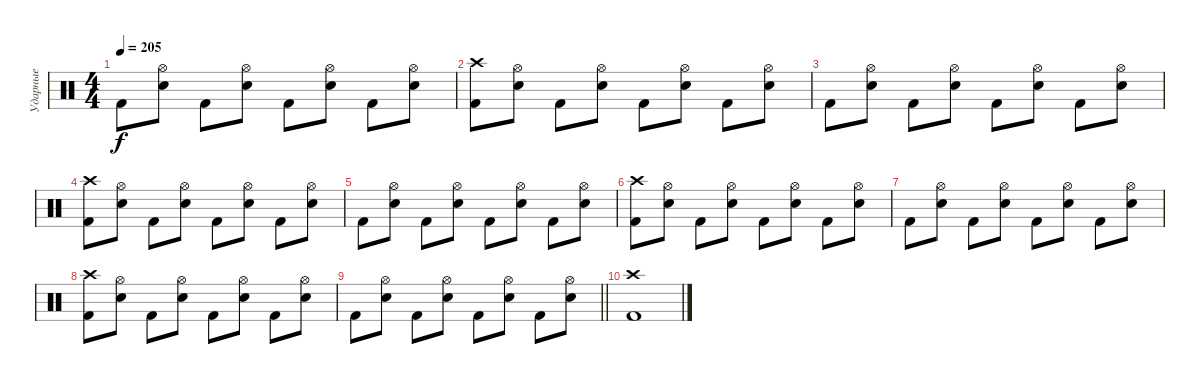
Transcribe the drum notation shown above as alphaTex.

\track ("Ударные" "Ударные") {instrument percussion}
\staff {score}
\articulation defaults
\ts (4 4)
\tempo 205
\clef neutral
\ks c "Kick (hit) 2".8{dy f}
("Hi-Hat (open)" "Electric Snare (hit)").8 "Kick (hit) 2".8 ("Hi-Hat (open)" "Electric Snare (hit)").8 "Kick (hit) 2".8 ("Hi-Hat (open)" "Electric Snare (hit)").8 "Kick (hit) 2".8 ("Hi-Hat (open)" "Electric Snare (hit)").8 |
("Crash high (hit)" "Kick (hit) 2").8 ("Hi-Hat (open)" "Electric Snare (hit)").8 "Kick (hit) 2".8 ("Hi-Hat (open)" "Electric Snare (hit)").8 "Kick (hit) 2".8 ("Hi-Hat (open)" "Electric Snare (hit)").8 "Kick (hit) 2".8 ("Hi-Hat (open)" "Electric Snare (hit)").8 |
"Kick (hit) 2".8 ("Hi-Hat (open)" "Electric Snare (hit)").8 "Kick (hit) 2".8 ("Hi-Hat (open)" "Electric Snare (hit)").8 "Kick (hit) 2".8 ("Hi-Hat (open)" "Electric Snare (hit)").8 "Kick (hit) 2".8 ("Hi-Hat (open)" "Electric Snare (hit)").8 |
("Crash high (hit)" "Kick (hit) 2").8 ("Hi-Hat (open)" "Electric Snare (hit)").8 "Kick (hit) 2".8 ("Hi-Hat (open)" "Electric Snare (hit)").8 "Kick (hit) 2".8 ("Hi-Hat (open)" "Electric Snare (hit)").8 "Kick (hit) 2".8 ("Hi-Hat (open)" "Electric Snare (hit)").8 |
"Kick (hit) 2".8 ("Hi-Hat (open)" "Electric Snare (hit)").8 "Kick (hit) 2".8 ("Hi-Hat (open)" "Electric Snare (hit)").8 "Kick (hit) 2".8 ("Hi-Hat (open)" "Electric Snare (hit)").8 "Kick (hit) 2".8 ("Hi-Hat (open)" "Electric Snare (hit)").8 |
("Crash high (hit)" "Kick (hit) 2").8 ("Hi-Hat (open)" "Electric Snare (hit)").8 "Kick (hit) 2".8 ("Hi-Hat (open)" "Electric Snare (hit)").8 "Kick (hit) 2".8 ("Hi-Hat (open)" "Electric Snare (hit)").8 "Kick (hit) 2".8 ("Hi-Hat (open)" "Electric Snare (hit)").8 |
"Kick (hit) 2".8 ("Hi-Hat (open)" "Electric Snare (hit)").8 "Kick (hit) 2".8 ("Hi-Hat (open)" "Electric Snare (hit)").8 "Kick (hit) 2".8 ("Hi-Hat (open)" "Electric Snare (hit)").8 "Kick (hit) 2".8 ("Hi-Hat (open)" "Electric Snare (hit)").8 |
("Crash high (hit)" "Kick (hit) 2").8 ("Hi-Hat (open)" "Electric Snare (hit)").8 "Kick (hit) 2".8 ("Hi-Hat (open)" "Electric Snare (hit)").8 "Kick (hit) 2".8 ("Hi-Hat (open)" "Electric Snare (hit)").8 "Kick (hit) 2".8 ("Hi-Hat (open)" "Electric Snare (hit)").8 |
\barLineRight lightlight "Kick (hit) 2".8
("Hi-Hat (open)" "Electric Snare (hit)").8 "Kick (hit) 2".8 ("Hi-Hat (open)" "Electric Snare (hit)").8 "Kick (hit) 2".8 ("Hi-Hat (open)" "Electric Snare (hit)").8 "Kick (hit) 2".8 ("Hi-Hat (open)" "Electric Snare (hit)").8 |
("Crash high (hit)" "Kick (hit) 2").1
